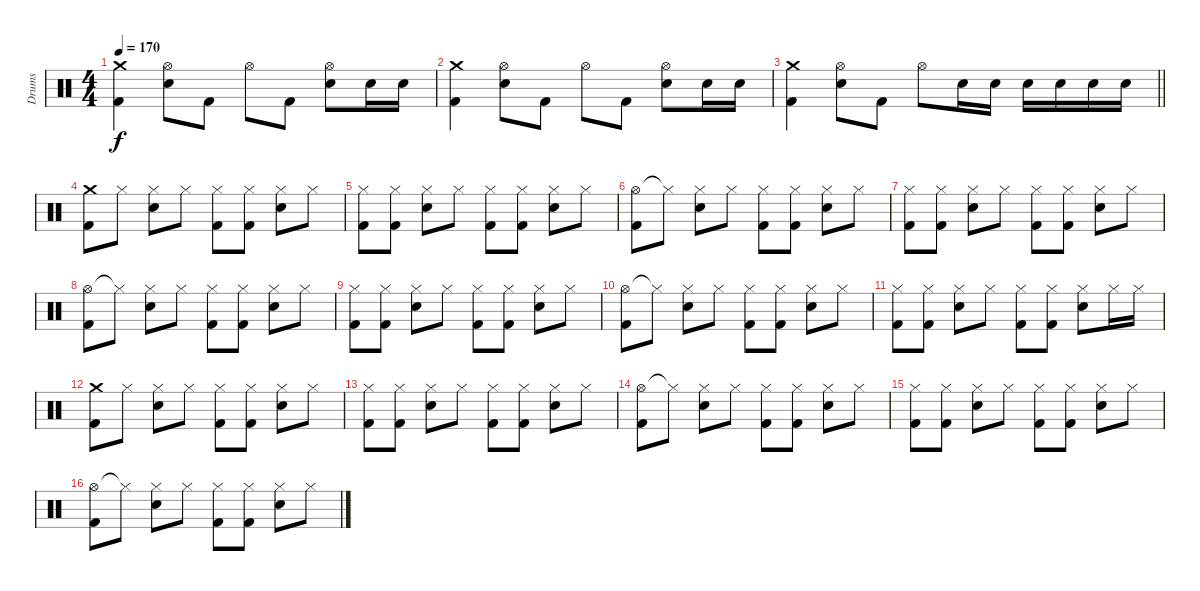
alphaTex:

\track ("Drums" "Drums") {instrument percussion}
\staff {score}
\articulation defaults
\ts (4 4)
\tempo 170
\clef neutral
\ks c
("Crash medium (hit)" "Kick (hit) 2").4{dy f} ("Hi-Hat (open)" "Electric Snare (hit)").8 "Kick (hit) 2".8 "Hi-Hat (open)".8 "Kick (hit) 2".8 ("Hi-Hat (open)" "Electric Snare (hit)").8 "Electric Snare (hit)".16 "Electric Snare (hit)".16 |
("Crash medium (hit)" "Kick (hit) 2").4 ("Hi-Hat (open)" "Electric Snare (hit)").8 "Kick (hit) 2".8 "Hi-Hat (open)".8 "Kick (hit) 2".8 ("Hi-Hat (open)" "Electric Snare (hit)").8 "Electric Snare (hit)".16 "Electric Snare (hit)".16 |
\barLineRight lightlight
("Crash medium (hit)" "Kick (hit) 2").4 ("Hi-Hat (open)" "Electric Snare (hit)").8 "Kick (hit) 2".8 "Hi-Hat (open)".8 "Electric Snare (hit)".16 "Electric Snare (hit)".16 "Electric Snare (hit)".16 "Electric Snare (hit)".16 "Electric Snare (hit)".16 "Electric Snare (hit)".16 |
("Crash medium (hit)" "Kick (hit) 2").8 "Hi-Hat (closed)".8 ("Hi-Hat (closed)" "Electric Snare (hit)").8 "Hi-Hat (closed)".8 ("Hi-Hat (closed)" "Kick (hit) 2").8 ("Hi-Hat (closed)" "Kick (hit) 2").8 ("Hi-Hat (closed)" "Electric Snare (hit)").8 "Hi-Hat (closed)".8 |
("Hi-Hat (closed)" "Kick (hit) 2").8 ("Hi-Hat (closed)" "Kick (hit) 2").8 ("Hi-Hat (closed)" "Electric Snare (hit)").8 "Hi-Hat (closed)".8 ("Hi-Hat (closed)" "Kick (hit) 2").8 ("Hi-Hat (closed)" "Kick (hit) 2").8 ("Hi-Hat (closed)" "Electric Snare (hit)").8 "Hi-Hat (closed)".8 |
("Hi-Hat (open)" "Kick (hit) 2").8 "Hi-Hat (closed)"{t}.8 ("Hi-Hat (closed)" "Electric Snare (hit)").8 "Hi-Hat (closed)".8 ("Hi-Hat (closed)" "Kick (hit) 2").8 ("Hi-Hat (closed)" "Kick (hit) 2").8 ("Hi-Hat (closed)" "Electric Snare (hit)").8 "Hi-Hat (closed)".8 |
("Hi-Hat (closed)" "Kick (hit) 2").8 ("Hi-Hat (closed)" "Kick (hit) 2").8 ("Hi-Hat (closed)" "Electric Snare (hit)").8 "Hi-Hat (closed)".8 ("Hi-Hat (closed)" "Kick (hit) 2").8 ("Hi-Hat (closed)" "Kick (hit) 2").8 ("Hi-Hat (closed)" "Electric Snare (hit)").8 "Hi-Hat (closed)".8 |
("Hi-Hat (open)" "Kick (hit) 2").8 "Hi-Hat (closed)"{t}.8 ("Hi-Hat (closed)" "Electric Snare (hit)").8 "Hi-Hat (closed)".8 ("Hi-Hat (closed)" "Kick (hit) 2").8 ("Hi-Hat (closed)" "Kick (hit) 2").8 ("Hi-Hat (closed)" "Electric Snare (hit)").8 "Hi-Hat (closed)".8 |
("Hi-Hat (closed)" "Kick (hit) 2").8 ("Hi-Hat (closed)" "Kick (hit) 2").8 ("Hi-Hat (closed)" "Electric Snare (hit)").8 "Hi-Hat (closed)".8 ("Hi-Hat (closed)" "Kick (hit) 2").8 ("Hi-Hat (closed)" "Kick (hit) 2").8 ("Hi-Hat (closed)" "Electric Snare (hit)").8 "Hi-Hat (closed)".8 |
("Hi-Hat (open)" "Kick (hit) 2").8 "Hi-Hat (closed)"{t}.8 ("Hi-Hat (closed)" "Electric Snare (hit)").8 "Hi-Hat (closed)".8 ("Hi-Hat (closed)" "Kick (hit) 2").8 ("Hi-Hat (closed)" "Kick (hit) 2").8 ("Hi-Hat (closed)" "Electric Snare (hit)").8 "Hi-Hat (closed)".8 |
("Hi-Hat (closed)" "Kick (hit) 2").8 ("Hi-Hat (closed)" "Kick (hit) 2").8 ("Hi-Hat (closed)" "Electric Snare (hit)").8 "Hi-Hat (closed)".8 ("Hi-Hat (closed)" "Kick (hit) 2").8 ("Hi-Hat (closed)" "Kick (hit) 2").8 ("Hi-Hat (closed)" "Electric Snare (hit)").8 "Hi-Hat (closed)".16 "Hi-Hat (closed)".16 |
("Crash medium (hit)" "Kick (hit) 2").8 "Hi-Hat (closed)".8 ("Hi-Hat (closed)" "Electric Snare (hit)").8 "Hi-Hat (closed)".8 ("Hi-Hat (closed)" "Kick (hit) 2").8 ("Hi-Hat (closed)" "Kick (hit) 2").8 ("Hi-Hat (closed)" "Electric Snare (hit)").8 "Hi-Hat (closed)".8 |
("Hi-Hat (closed)" "Kick (hit) 2").8 ("Hi-Hat (closed)" "Kick (hit) 2").8 ("Hi-Hat (closed)" "Electric Snare (hit)").8 "Hi-Hat (closed)".8 ("Hi-Hat (closed)" "Kick (hit) 2").8 ("Hi-Hat (closed)" "Kick (hit) 2").8 ("Hi-Hat (closed)" "Electric Snare (hit)").8 "Hi-Hat (closed)".8 |
("Hi-Hat (open)" "Kick (hit) 2").8 "Hi-Hat (closed)"{t}.8 ("Hi-Hat (closed)" "Electric Snare (hit)").8 "Hi-Hat (closed)".8 ("Hi-Hat (closed)" "Kick (hit) 2").8 ("Hi-Hat (closed)" "Kick (hit) 2").8 ("Hi-Hat (closed)" "Electric Snare (hit)").8 "Hi-Hat (closed)".8 |
("Hi-Hat (closed)" "Kick (hit) 2").8 ("Hi-Hat (closed)" "Kick (hit) 2").8 ("Hi-Hat (closed)" "Electric Snare (hit)").8 "Hi-Hat (closed)".8 ("Hi-Hat (closed)" "Kick (hit) 2").8 ("Hi-Hat (closed)" "Kick (hit) 2").8 ("Hi-Hat (closed)" "Electric Snare (hit)").8 "Hi-Hat (closed)".8 |
("Hi-Hat (open)" "Kick (hit) 2").8 "Hi-Hat (closed)"{t}.8 ("Hi-Hat (closed)" "Electric Snare (hit)").8 "Hi-Hat (closed)".8 ("Hi-Hat (closed)" "Kick (hit) 2").8 ("Hi-Hat (closed)" "Kick (hit) 2").8 ("Hi-Hat (closed)" "Electric Snare (hit)").8 "Hi-Hat (closed)".8
